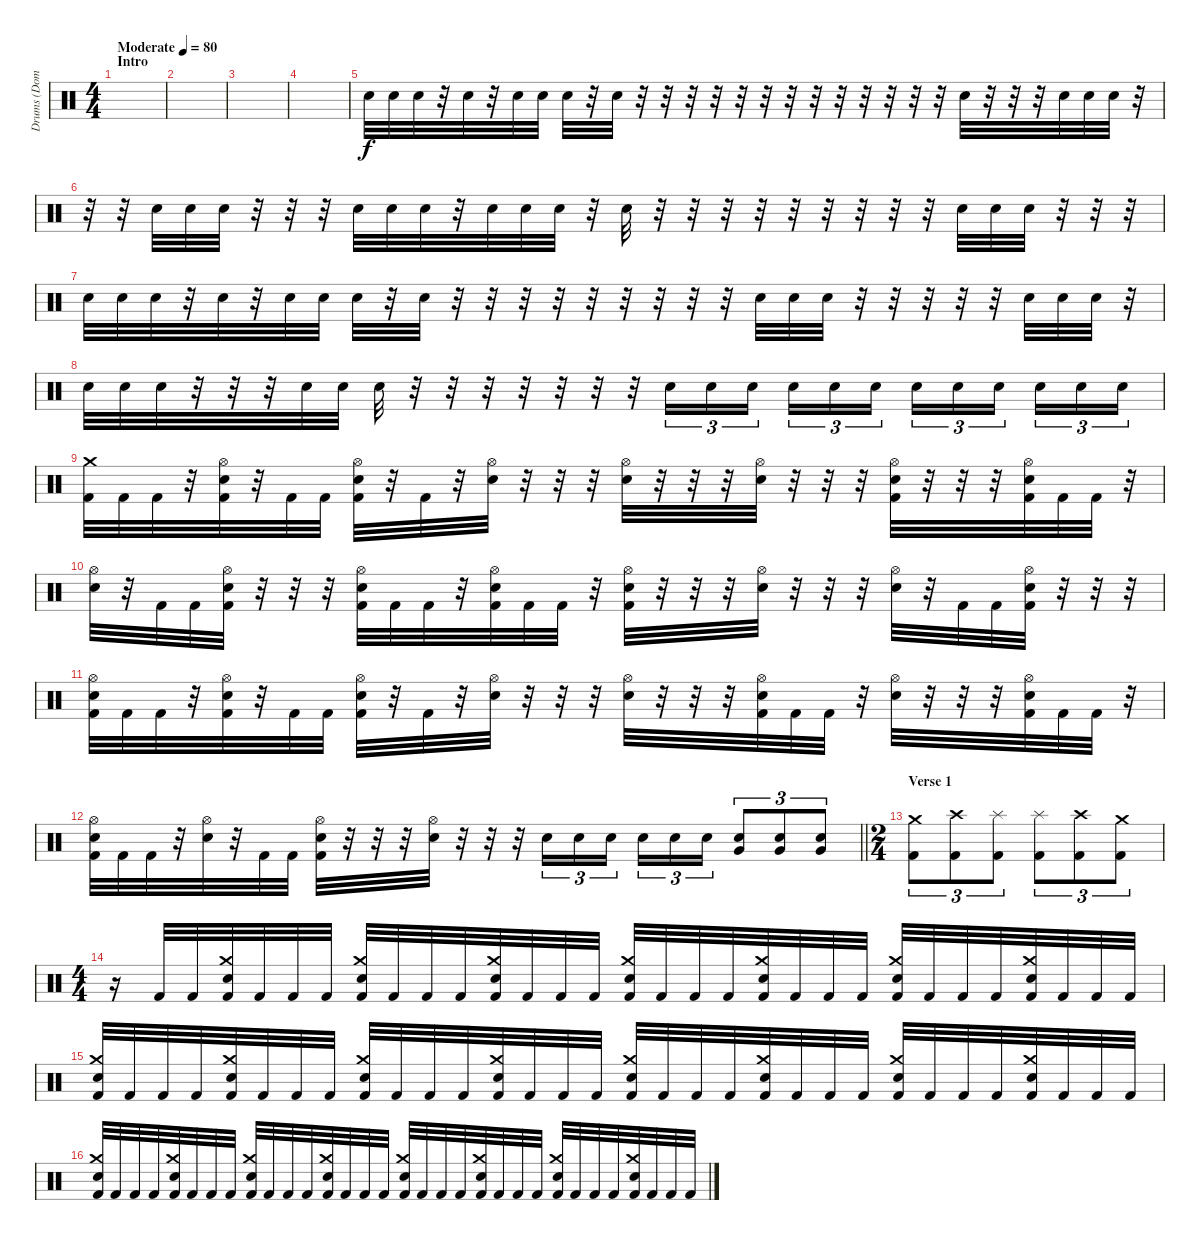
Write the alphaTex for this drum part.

\track ("Drums (Dominik)" "Drums (Dom") {instrument percussion}
\staff {score}
\articulation defaults
\ts (4 4)
\section ("" "Intro")
\tempo (80 "Moderate")
\clef neutral
\ks c
|
|
|
|
"Electric Snare (hit)".32 "Electric Snare (hit)".32 "Electric Snare (hit)".32 r.32 "Electric Snare (hit)".32 r.32 "Electric Snare (hit)".32 "Electric Snare (hit)".32 "Electric Snare (hit)".32 r.32 "Electric Snare (hit)".32 r.32 r.32 r.32 r.32 r.32 r.32 r.32 r.32 r.32 r.32 r.32 r.32 r.32 "Electric Snare (hit)".32 r.32 r.32 r.32 "Electric Snare (hit)".32 "Electric Snare (hit)".32 "Electric Snare (hit)".32 r.32 |
r.32 r.32 "Electric Snare (hit)".32 "Electric Snare (hit)".32 "Electric Snare (hit)".32 r.32 r.32 r.32 "Electric Snare (hit)".32 "Electric Snare (hit)".32 "Electric Snare (hit)".32 r.32 "Electric Snare (hit)".32 "Electric Snare (hit)".32 "Electric Snare (hit)".32 r.32 "Electric Snare (hit)".32 r.32 r.32 r.32 r.32 r.32 r.32 r.32 r.32 r.32 "Electric Snare (hit)".32 "Electric Snare (hit)".32 "Electric Snare (hit)".32 r.32 r.32 r.32 |
"Electric Snare (hit)".32 "Electric Snare (hit)".32 "Electric Snare (hit)".32 r.32 "Electric Snare (hit)".32 r.32 "Electric Snare (hit)".32 "Electric Snare (hit)".32 "Electric Snare (hit)".32 r.32 "Electric Snare (hit)".32 r.32 r.32 r.32 r.32 r.32 r.32 r.32 r.32 r.32 "Electric Snare (hit)".32 "Electric Snare (hit)".32 "Electric Snare (hit)".32 r.32 r.32 r.32 r.32 r.32 "Electric Snare (hit)".32 "Electric Snare (hit)".32 "Electric Snare (hit)".32 r.32 |
"Electric Snare (hit)".32 "Electric Snare (hit)".32 "Electric Snare (hit)".32 r.32 r.32 r.32 "Electric Snare (hit)".32 "Electric Snare (hit)".32 "Electric Snare (hit)".32 r.32 r.32 r.32 r.32 r.32 r.32 r.32 "Electric Snare (hit)".16{tu (3 2)} "Electric Snare (hit)".16{tu (3 2)} "Electric Snare (hit)".16{tu (3 2) beam splitsecondary} "Electric Snare (hit)".16{tu (3 2)} "Electric Snare (hit)".16{tu (3 2)} "Electric Snare (hit)".16{tu (3 2)} "Electric Snare (hit)".16{tu (3 2)} "Electric Snare (hit)".16{tu (3 2)} "Electric Snare (hit)".16{tu (3 2) beam splitsecondary} "Electric Snare (hit)".16{tu (3 2)} "Electric Snare (hit)".16{tu (3 2)} "Electric Snare (hit)".16{tu (3 2)} |
("Crash medium (hit)" "Kick (hit) 2").32 "Kick (hit) 2".32 "Kick (hit) 2".32 r.32 ("Hi-Hat (open)" "Electric Snare (hit)" "Kick (hit) 2").32 r.32 "Kick (hit) 2".32 "Kick (hit) 2".32 ("Hi-Hat (open)" "Electric Snare (hit)" "Kick (hit) 2").32 r.32 "Kick (hit) 2".32 r.32 ("Hi-Hat (open)" "Electric Snare (hit)").32 r.32 r.32 r.32 ("Hi-Hat (open)" "Electric Snare (hit)").32 r.32 r.32 r.32 ("Hi-Hat (open)" "Electric Snare (hit)").32 r.32 r.32 r.32 ("Hi-Hat (open)" "Electric Snare (hit)" "Kick (hit) 2").32 r.32 r.32 r.32 ("Hi-Hat (open)" "Electric Snare (hit)" "Kick (hit) 2").32 "Kick (hit) 2".32 "Kick (hit) 2".32 r.32 |
("Hi-Hat (open)" "Electric Snare (hit)").32 r.32 "Kick (hit) 2".32 "Kick (hit) 2".32 ("Hi-Hat (open)" "Electric Snare (hit)" "Kick (hit) 2").32 r.32 r.32 r.32 ("Hi-Hat (open)" "Electric Snare (hit)" "Kick (hit) 2").32 "Kick (hit) 2".32 "Kick (hit) 2".32 r.32 ("Hi-Hat (open)" "Electric Snare (hit)" "Kick (hit) 2").32 "Kick (hit) 2".32 "Kick (hit) 2".32 r.32 ("Hi-Hat (open)" "Electric Snare (hit)" "Kick (hit) 2").32 r.32 r.32 r.32 ("Hi-Hat (open)" "Electric Snare (hit)").32 r.32 r.32 r.32 ("Hi-Hat (open)" "Electric Snare (hit)").32 r.32 "Kick (hit) 2".32 "Kick (hit) 2".32 ("Hi-Hat (open)" "Electric Snare (hit)" "Kick (hit) 2").32 r.32 r.32 r.32 |
("Hi-Hat (open)" "Electric Snare (hit)" "Kick (hit) 2").32 "Kick (hit) 2".32 "Kick (hit) 2".32 r.32 ("Hi-Hat (open)" "Electric Snare (hit)" "Kick (hit) 2").32 r.32 "Kick (hit) 2".32 "Kick (hit) 2".32 ("Hi-Hat (open)" "Electric Snare (hit)" "Kick (hit) 2").32 r.32 "Kick (hit) 2".32 r.32 ("Hi-Hat (open)" "Electric Snare (hit)").32 r.32 r.32 r.32 ("Hi-Hat (open)" "Electric Snare (hit)").32 r.32 r.32 r.32 ("Hi-Hat (open)" "Electric Snare (hit)" "Kick (hit) 2").32 "Kick (hit) 2".32 "Kick (hit) 2".32 r.32 ("Hi-Hat (open)" "Electric Snare (hit)").32 r.32 r.32 r.32 ("Hi-Hat (open)" "Electric Snare (hit)" "Kick (hit) 2").32 "Kick (hit) 2".32 "Kick (hit) 2".32 r.32 |
\barLineRight lightlight
("Hi-Hat (open)" "Electric Snare (hit)" "Kick (hit) 2").32 "Kick (hit) 2".32 "Kick (hit) 2".32 r.32 ("Hi-Hat (open)" "Electric Snare (hit)").32 r.32 "Kick (hit) 2".32 "Kick (hit) 2".32 ("Hi-Hat (open)" "Electric Snare (hit)" "Kick (hit) 2").32 r.32 r.32 r.32 ("Hi-Hat (open)" "Electric Snare (hit)").32 r.32 r.32 r.32 "Electric Snare (hit)".16{tu (3 2)} "Electric Snare (hit)".16{tu (3 2)} "Electric Snare (hit)".16{tu (3 2) beam splitsecondary} "Electric Snare (hit)".16{tu (3 2)} "Electric Snare (hit)".16{tu (3 2)} "Electric Snare (hit)".16{tu (3 2)} ("Electric Snare (hit)" "Very Low Tom (hit)").8{tu (3 2)} ("Electric Snare (hit)" "Very Low Tom (hit)").8{tu (3 2)} ("Electric Snare (hit)" "Very Low Tom (hit)").8{tu (3 2)} |
\ts (2 4)
\section ("" "Verse 1")
("Crash medium (hit)" "Kick (hit) 2").8{tu (3 2)} ("Crash high (hit)" "Kick (hit) 2").8{tu (3 2)} ("Splash (hit)" "Kick (hit) 2").8{tu (3 2)} ("Splash (hit)" "Kick (hit) 2").8{tu (3 2)} ("Crash high (hit)" "Kick (hit) 2").8{tu (3 2)} ("Crash medium (hit)" "Kick (hit) 2").8{tu (3 2)} |
\ts (4 4)
r.16 "Kick (hit) 2".32 "Kick (hit) 2".32 ("Crash medium (hit)" "Electric Snare (hit)" "Kick (hit) 2").32 "Kick (hit) 2".32 "Kick (hit) 2".32 "Kick (hit) 2".32 ("Crash medium (hit)" "Electric Snare (hit)" "Kick (hit) 2").32 "Kick (hit) 2".32 "Kick (hit) 2".32 "Kick (hit) 2".32 ("Crash medium (hit)" "Electric Snare (hit)" "Kick (hit) 2").32 "Kick (hit) 2".32 "Kick (hit) 2".32 "Kick (hit) 2".32 ("Crash medium (hit)" "Electric Snare (hit)" "Kick (hit) 2").32 "Kick (hit) 2".32 "Kick (hit) 2".32 "Kick (hit) 2".32 ("Crash medium (hit)" "Electric Snare (hit)" "Kick (hit) 2").32 "Kick (hit) 2".32 "Kick (hit) 2".32 "Kick (hit) 2".32 ("Crash medium (hit)" "Electric Snare (hit)" "Kick (hit) 2").32 "Kick (hit) 2".32 "Kick (hit) 2".32 "Kick (hit) 2".32 ("Crash medium (hit)" "Electric Snare (hit)" "Kick (hit) 2").32 "Kick (hit) 2".32 "Kick (hit) 2".32 "Kick (hit) 2".32 |
("Crash medium (hit)" "Electric Snare (hit)" "Kick (hit) 2").32 "Kick (hit) 2".32 "Kick (hit) 2".32 "Kick (hit) 2".32 ("Crash medium (hit)" "Electric Snare (hit)" "Kick (hit) 2").32 "Kick (hit) 2".32 "Kick (hit) 2".32 "Kick (hit) 2".32 ("Crash medium (hit)" "Electric Snare (hit)" "Kick (hit) 2").32 "Kick (hit) 2".32 "Kick (hit) 2".32 "Kick (hit) 2".32 ("Crash medium (hit)" "Electric Snare (hit)" "Kick (hit) 2").32 "Kick (hit) 2".32 "Kick (hit) 2".32 "Kick (hit) 2".32 ("Crash medium (hit)" "Electric Snare (hit)" "Kick (hit) 2").32 "Kick (hit) 2".32 "Kick (hit) 2".32 "Kick (hit) 2".32 ("Crash medium (hit)" "Electric Snare (hit)" "Kick (hit) 2").32 "Kick (hit) 2".32 "Kick (hit) 2".32 "Kick (hit) 2".32 ("Crash medium (hit)" "Electric Snare (hit)" "Kick (hit) 2").32 "Kick (hit) 2".32 "Kick (hit) 2".32 "Kick (hit) 2".32 ("Crash medium (hit)" "Electric Snare (hit)" "Kick (hit) 2").32 "Kick (hit) 2".32 "Kick (hit) 2".32 "Kick (hit) 2".32 |
("Crash medium (hit)" "Electric Snare (hit)" "Kick (hit) 2").32 "Kick (hit) 2".32 "Kick (hit) 2".32 "Kick (hit) 2".32 ("Crash medium (hit)" "Electric Snare (hit)" "Kick (hit) 2").32 "Kick (hit) 2".32 "Kick (hit) 2".32 "Kick (hit) 2".32 ("Crash medium (hit)" "Electric Snare (hit)" "Kick (hit) 2").32 "Kick (hit) 2".32 "Kick (hit) 2".32 "Kick (hit) 2".32 ("Crash medium (hit)" "Electric Snare (hit)" "Kick (hit) 2").32 "Kick (hit) 2".32 "Kick (hit) 2".32 "Kick (hit) 2".32 ("Crash medium (hit)" "Electric Snare (hit)" "Kick (hit) 2").32 "Kick (hit) 2".32 "Kick (hit) 2".32 "Kick (hit) 2".32 ("Crash medium (hit)" "Electric Snare (hit)" "Kick (hit) 2").32 "Kick (hit) 2".32 "Kick (hit) 2".32 "Kick (hit) 2".32 ("Crash medium (hit)" "Electric Snare (hit)" "Kick (hit) 2").32 "Kick (hit) 2".32 "Kick (hit) 2".32 "Kick (hit) 2".32 ("Crash medium (hit)" "Electric Snare (hit)" "Kick (hit) 2").32 "Kick (hit) 2".32 "Kick (hit) 2".32 "Kick (hit) 2".32
